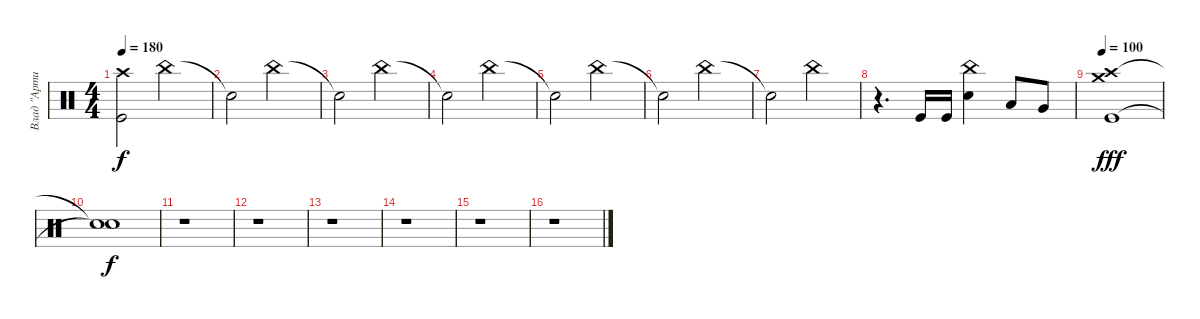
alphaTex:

\track ("Влад \"Артист\"" "Влад \"Арти") {instrument percussion}
\staff {score}
\articulation defaults
\ts (4 4)
\tempo 180
\clef neutral
\ks c
("Crash high (hit)" "Kick (hit)").2{dy f} "China (hit)".2 |
"Snare (hit)"{t}.2 "China (hit)".2 |
"Snare (hit)"{t}.2 "China (hit)".2 |
"Snare (hit)"{t}.2 "China (hit)".2 |
"Snare (hit)"{t}.2 "China (hit)".2 |
"Snare (hit)"{t}.2 "China (hit)".2 |
"Snare (hit)"{t}.2 "China (hit)".2 |
r.4{d} "Kick (hit)".16 "Kick (hit)".16 ("Snare (hit) 2" "China (hit)").4 "Low Tom (hit)".8 "Very Low Tom (hit)".8 |
\tempo 100
("Kick (hit)" "Crash high (hit)" "Crash medium (hit)").1{dy fff} |
("Snare (hit)"{t} "Snare (hit)"{t}).1{dy f} |
r.1 |
r.1 |
r.1 |
r.1 |
r.1 |
r.1
